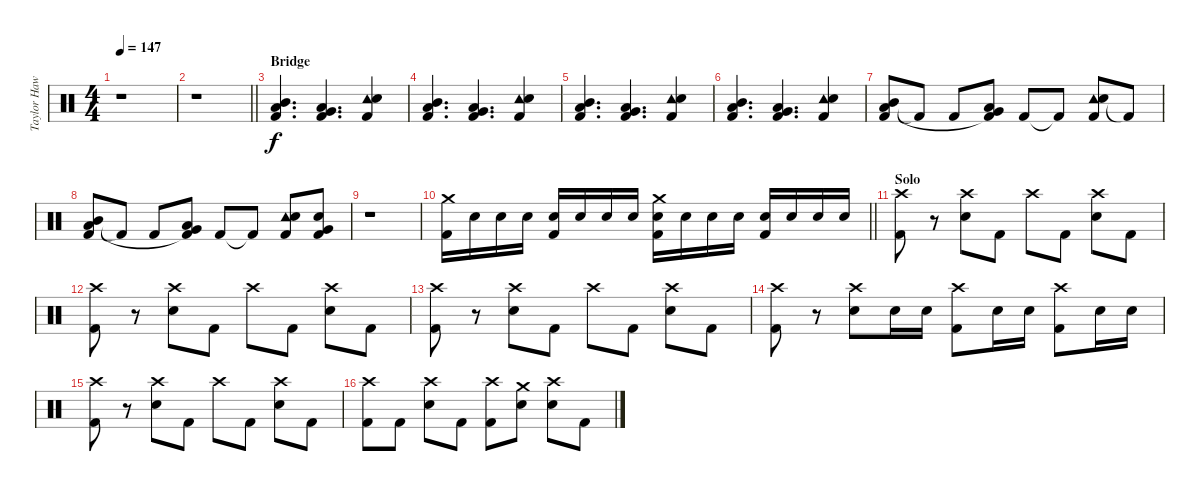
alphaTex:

\track ("Taylor Hawkins - Drums" "Taylor Haw") {instrument percussion}
\staff {score}
\articulation defaults
\ts (4 4)
\tempo 147
\clef neutral
\ks c
r.1{dy f} |
\barLineRight lightlight
r.1 |
\section ("" "Bridge")
("Mid Tom (hit)" "Low Tom (hit)" "Kick (hit) 2").4{d} ("Low Tom (hit)" "Very Low Tom (hit)" "Kick (hit) 2").4{d} ("Tambourine (hit)" "Snare (hit) 2" "Kick (hit) 2").4 |
("Mid Tom (hit)" "Low Tom (hit)" "Kick (hit) 2").4{d} ("Low Tom (hit)" "Very Low Tom (hit)" "Kick (hit) 2").4{d} ("Tambourine (hit)" "Snare (hit) 2" "Kick (hit) 2").4 |
("Mid Tom (hit)" "Low Tom (hit)" "Kick (hit) 2").4{d} ("Low Tom (hit)" "Very Low Tom (hit)" "Kick (hit) 2").4{d} ("Tambourine (hit)" "Snare (hit) 2" "Kick (hit) 2").4 |
("Mid Tom (hit)" "Low Tom (hit)" "Kick (hit) 2").4{d} ("Low Tom (hit)" "Very Low Tom (hit)" "Kick (hit) 2").4{d} ("Tambourine (hit)" "Snare (hit) 2" "Kick (hit) 2").4 |
("Mid Tom (hit)" "Low Tom (hit)" "Kick (hit) 2").8 "Kick (hit) 2"{t}.8 "Kick (hit) 2".8 ("Low Tom (hit)" "Very Low Tom (hit)" "Kick (hit) 2"{t}).8 "Kick (hit) 2".8 "Kick (hit) 2"{t}.8 ("Tambourine (hit)" "Snare (hit) 2" "Kick (hit) 2").8 "Kick (hit) 2"{t}.8 |
("Mid Tom (hit)" "Low Tom (hit)" "Kick (hit) 2").8 "Kick (hit) 2"{t}.8 "Kick (hit) 2".8 ("Low Tom (hit)" "Very Low Tom (hit)" "Kick (hit) 2"{t}).8 "Kick (hit) 2".8 "Kick (hit) 2"{t}.8 ("Tambourine (hit)" "Snare (hit) 2" "Kick (hit) 2").8 ("Snare (hit) 2" "Very Low Tom (hit)" "Kick (hit) 2").8 |
r.1 |
\barLineRight lightlight
("Crash medium (hit)" "Kick (hit) 2").16 "Snare (hit) 2".16 "Snare (hit) 2".16 "Snare (hit) 2".16 ("Snare (hit) 2" "Kick (hit) 2").16 "Snare (hit) 2".16 "Snare (hit) 2".16 "Snare (hit) 2".16 ("Crash medium (hit)" "Snare (hit) 2" "Kick (hit) 2").16 "Snare (hit) 2".16 "Snare (hit) 2".16 "Snare (hit) 2".16 ("Snare (hit) 2" "Kick (hit) 2").16 "Snare (hit) 2".16 "Snare (hit) 2".16 "Snare (hit) 2".16 |
\section ("" "Solo")
("Crash high (hit)" "Kick (hit) 2").8 r.8 ("Crash high (hit)" "Snare (hit) 2").8 "Kick (hit) 2".8 "Crash high (hit)".8 "Kick (hit) 2".8 ("Crash high (hit)" "Snare (hit) 2").8 "Kick (hit) 2".8 |
("Crash high (hit)" "Kick (hit) 2").8 r.8 ("Crash high (hit)" "Snare (hit) 2").8 "Kick (hit) 2".8 "Crash high (hit)".8 "Kick (hit) 2".8 ("Crash high (hit)" "Snare (hit) 2").8 "Kick (hit) 2".8 |
("Crash high (hit)" "Kick (hit) 2").8 r.8 ("Crash high (hit)" "Snare (hit) 2").8 "Kick (hit) 2".8 "Crash high (hit)".8 "Kick (hit) 2".8 ("Crash high (hit)" "Snare (hit) 2").8 "Kick (hit) 2".8 |
("Crash high (hit)" "Kick (hit) 2").8 r.8 ("Crash high (hit)" "Snare (hit) 2").8 "Snare (hit) 2".16 "Snare (hit) 2".16 ("Crash high (hit)" "Kick (hit) 2").8 "Snare (hit) 2".16 "Snare (hit) 2".16 ("Crash high (hit)" "Kick (hit) 2").8 "Snare (hit) 2".16 "Snare (hit) 2".16 |
("Crash high (hit)" "Kick (hit) 2").8 r.8 ("Crash high (hit)" "Snare (hit) 2").8 "Kick (hit) 2".8 "Crash high (hit)".8 "Kick (hit) 2".8 ("Crash high (hit)" "Snare (hit) 2").8 "Kick (hit) 2".8 |
("Crash high (hit)" "Kick (hit) 2").8 "Kick (hit) 2".8 ("Crash high (hit)" "Snare (hit) 2").8 "Kick (hit) 2".8 ("Crash high (hit)" "Kick (hit) 2").8 ("Crash medium (hit)" "Snare (hit) 2").8 ("Crash high (hit)" "Snare (hit) 2").8 "Kick (hit) 2".8
